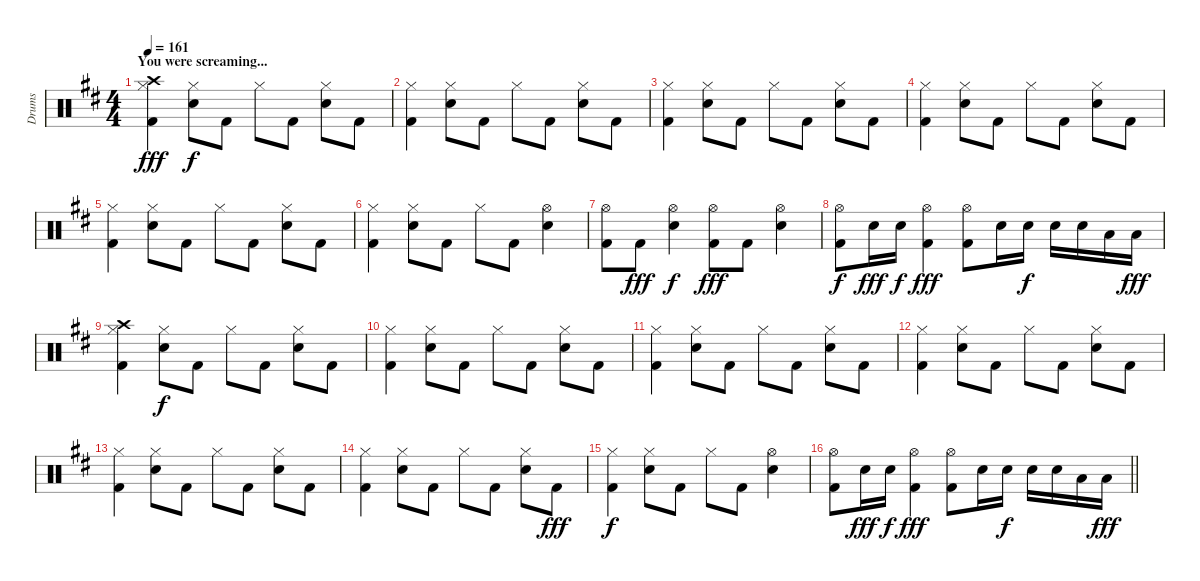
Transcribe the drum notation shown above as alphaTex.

\track ("Drums" "Drums") {instrument percussion}
\staff {score}
\articulation defaults
\ts (4 4)
\section ("" "You were screaming...")
\tempo 161
\clef neutral
\ks d
("Hi-Hat (closed)" "Crash high (hit)" "Kick (hit) 2").4{dy fff} ("Hi-Hat (closed)" "Electric Snare (hit)").8{dy f} "Kick (hit) 2".8 "Hi-Hat (closed)".8 "Kick (hit) 2".8 ("Hi-Hat (closed)" "Electric Snare (hit)").8 "Kick (hit) 2".8 |
("Hi-Hat (closed)" "Kick (hit) 2").4 ("Hi-Hat (closed)" "Electric Snare (hit)").8 "Kick (hit) 2".8 "Hi-Hat (closed)".8 "Kick (hit) 2".8 ("Hi-Hat (closed)" "Electric Snare (hit)").8 "Kick (hit) 2".8 |
("Hi-Hat (closed)" "Kick (hit) 2").4 ("Hi-Hat (closed)" "Electric Snare (hit)").8 "Kick (hit) 2".8 "Hi-Hat (closed)".8 "Kick (hit) 2".8 ("Hi-Hat (closed)" "Electric Snare (hit)").8 "Kick (hit) 2".8 |
("Hi-Hat (closed)" "Kick (hit) 2").4 ("Hi-Hat (closed)" "Electric Snare (hit)").8 "Kick (hit) 2".8 "Hi-Hat (closed)".8 "Kick (hit) 2".8 ("Hi-Hat (closed)" "Electric Snare (hit)").8 "Kick (hit) 2".8 |
("Hi-Hat (closed)" "Kick (hit) 2").4 ("Hi-Hat (closed)" "Electric Snare (hit)").8 "Kick (hit) 2".8 "Hi-Hat (closed)".8 "Kick (hit) 2".8 ("Hi-Hat (closed)" "Electric Snare (hit)").8 "Kick (hit) 2".8 |
("Hi-Hat (closed)" "Kick (hit) 2").4 ("Hi-Hat (closed)" "Electric Snare (hit)").8 "Kick (hit) 2".8 "Hi-Hat (closed)".8 "Kick (hit) 2".8 ("Hi-Hat (open)" "Electric Snare (hit)").4 |
("Hi-Hat (open)" "Kick (hit) 2").8 "Kick (hit) 2".8{dy fff} ("Hi-Hat (open)" "Electric Snare (hit)").4{dy f} ("Hi-Hat (open)" "Kick (hit) 2").8{dy fff} "Kick (hit) 2".8 ("Hi-Hat (open)" "Electric Snare (hit)").4 |
("Hi-Hat (open)" "Kick (hit) 2").8{dy f} "Electric Snare (hit)".16{dy fff} "Electric Snare (hit)".16{dy f} ("Hi-Hat (open)" "Kick (hit) 2").4{dy fff} ("Hi-Hat (open)" "Kick (hit) 2").8 "Electric Snare (hit)".16 "Electric Snare (hit)".16{dy f} "Electric Snare (hit)".16 "Electric Snare (hit)".16 "Low Tom (hit)".16 "Low Tom (hit)".16{dy fff} |
("Hi-Hat (closed)" "Crash high (hit)" "Kick (hit) 2").4 ("Hi-Hat (closed)" "Electric Snare (hit)").8{dy f} "Kick (hit) 2".8 "Hi-Hat (closed)".8 "Kick (hit) 2".8 ("Hi-Hat (closed)" "Electric Snare (hit)").8 "Kick (hit) 2".8 |
("Hi-Hat (closed)" "Kick (hit) 2").4 ("Hi-Hat (closed)" "Electric Snare (hit)").8 "Kick (hit) 2".8 "Hi-Hat (closed)".8 "Kick (hit) 2".8 ("Hi-Hat (closed)" "Electric Snare (hit)").8 "Kick (hit) 2".8 |
("Hi-Hat (closed)" "Kick (hit) 2").4 ("Hi-Hat (closed)" "Electric Snare (hit)").8 "Kick (hit) 2".8 "Hi-Hat (closed)".8 "Kick (hit) 2".8 ("Hi-Hat (closed)" "Electric Snare (hit)").8 "Kick (hit) 2".8 |
("Hi-Hat (closed)" "Kick (hit) 2").4 ("Hi-Hat (closed)" "Electric Snare (hit)").8 "Kick (hit) 2".8 "Hi-Hat (closed)".8 "Kick (hit) 2".8 ("Hi-Hat (closed)" "Electric Snare (hit)").8 "Kick (hit) 2".8 |
("Hi-Hat (closed)" "Kick (hit) 2").4 ("Hi-Hat (closed)" "Electric Snare (hit)").8 "Kick (hit) 2".8 "Hi-Hat (closed)".8 "Kick (hit) 2".8 ("Hi-Hat (closed)" "Electric Snare (hit)").8 "Kick (hit) 2".8 |
("Hi-Hat (closed)" "Kick (hit) 2").4 ("Hi-Hat (closed)" "Electric Snare (hit)").8 "Kick (hit) 2".8 "Hi-Hat (closed)".8 "Kick (hit) 2".8 ("Hi-Hat (closed)" "Electric Snare (hit)").8 "Kick (hit) 2".8{dy fff} |
("Hi-Hat (closed)" "Kick (hit) 2").4{dy f} ("Hi-Hat (closed)" "Electric Snare (hit)").8 "Kick (hit) 2".8 "Hi-Hat (closed)".8 "Kick (hit) 2".8 ("Hi-Hat (open)" "Electric Snare (hit)").4 |
\barLineRight lightlight
("Hi-Hat (open)" "Kick (hit) 2").8 "Electric Snare (hit)".16{dy fff} "Electric Snare (hit)".16{dy f} ("Hi-Hat (open)" "Kick (hit) 2").4{dy fff} ("Hi-Hat (open)" "Kick (hit) 2").8 "Electric Snare (hit)".16 "Electric Snare (hit)".16{dy f} "Electric Snare (hit)".16 "Electric Snare (hit)".16 "Low Tom (hit)".16 "Low Tom (hit)".16{dy fff}
